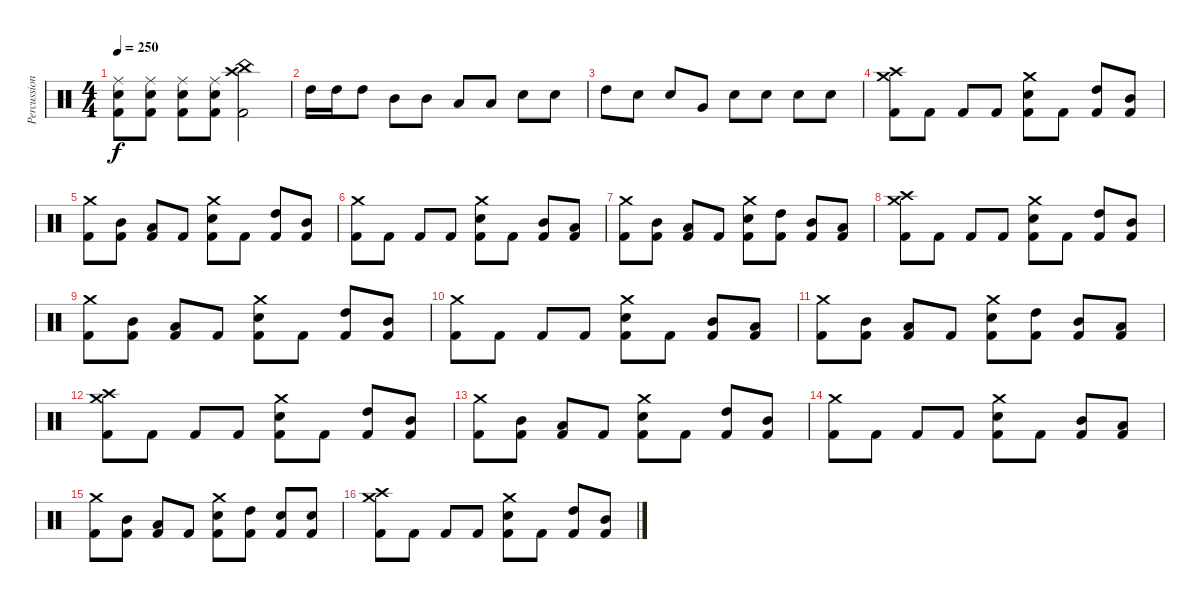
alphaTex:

\track ("Percussion" "Percussion") {instrument percussion}
\staff {score}
\articulation defaults
\ts (4 4)
\tempo 250
\clef neutral
\ks c
("Ride (middle)" "Electric Snare (hit)" "Kick (hit) 2").8{dy f} ("Ride (middle)" "Electric Snare (hit)" "Kick (hit) 2").8 ("Ride (middle)" "Electric Snare (hit)" "Kick (hit) 2").8 ("Ride (middle)" "Electric Snare (hit)" "Kick (hit) 2").8 ("Crash high (hit)" "China (hit)" "Kick (hit) 2").2 |
"High Tom (hit)".16 "High Tom (hit)".16 "High Tom (hit)".8 "Mid Tom (hit)".8 "Mid Tom (hit)".8 "Low Tom (hit)".8 "Low Tom (hit)".8 "Electric Snare (hit)".8 "Electric Snare (hit)".8 |
"High Tom (hit)".8 "Electric Snare (hit)".8 "Electric Snare (hit)".8 "Very Low Tom (hit)".8 "Electric Snare (hit)".8 "Electric Snare (hit)".8 "Electric Snare (hit)".8 "Electric Snare (hit)".8 |
("Crash high (hit)" "Crash medium (hit)" "Kick (hit) 2").8 "Kick (hit) 2".8 "Kick (hit) 2".8 "Kick (hit) 2".8 ("Crash medium (hit)" "Electric Snare (hit)" "Kick (hit) 2").8 "Kick (hit) 2".8 ("High Tom (hit)" "Kick (hit) 2").8 ("Mid Tom (hit)" "Kick (hit) 2").8 |
("Crash medium (hit)" "Kick (hit) 2").8 ("Mid Tom (hit)" "Kick (hit) 2").8 ("Low Tom (hit)" "Kick (hit) 2").8 "Kick (hit) 2".8 ("Crash medium (hit)" "Electric Snare (hit)" "Kick (hit) 2").8 "Kick (hit) 2".8 ("High Tom (hit)" "Kick (hit) 2").8 ("Mid Tom (hit)" "Kick (hit) 2").8 |
("Crash medium (hit)" "Kick (hit) 2").8 "Kick (hit) 2".8 "Kick (hit) 2".8 "Kick (hit) 2".8 ("Crash medium (hit)" "Electric Snare (hit)" "Kick (hit) 2").8 "Kick (hit) 2".8 ("Mid Tom (hit)" "Kick (hit) 2").8 ("Low Tom (hit)" "Kick (hit) 2").8 |
("Crash medium (hit)" "Kick (hit) 2").8 ("Mid Tom (hit)" "Kick (hit) 2").8 ("Low Tom (hit)" "Kick (hit) 2").8 "Kick (hit) 2".8 ("Crash medium (hit)" "Electric Snare (hit)" "Kick (hit) 2").8 ("High Tom (hit)" "Kick (hit) 2").8 ("Mid Tom (hit)" "Kick (hit) 2").8 ("Low Tom (hit)" "Kick (hit) 2").8 |
("Crash high (hit)" "Crash medium (hit)" "Kick (hit) 2").8 "Kick (hit) 2".8 "Kick (hit) 2".8 "Kick (hit) 2".8 ("Crash medium (hit)" "Electric Snare (hit)" "Kick (hit) 2").8 "Kick (hit) 2".8 ("High Tom (hit)" "Kick (hit) 2").8 ("Mid Tom (hit)" "Kick (hit) 2").8 |
("Crash medium (hit)" "Kick (hit) 2").8 ("Mid Tom (hit)" "Kick (hit) 2").8 ("Low Tom (hit)" "Kick (hit) 2").8 "Kick (hit) 2".8 ("Crash medium (hit)" "Electric Snare (hit)" "Kick (hit) 2").8 "Kick (hit) 2".8 ("High Tom (hit)" "Kick (hit) 2").8 ("Mid Tom (hit)" "Kick (hit) 2").8 |
("Crash medium (hit)" "Kick (hit) 2").8 "Kick (hit) 2".8 "Kick (hit) 2".8 "Kick (hit) 2".8 ("Crash medium (hit)" "Electric Snare (hit)" "Kick (hit) 2").8 "Kick (hit) 2".8 ("Mid Tom (hit)" "Kick (hit) 2").8 ("Low Tom (hit)" "Kick (hit) 2").8 |
("Crash medium (hit)" "Kick (hit) 2").8 ("Mid Tom (hit)" "Kick (hit) 2").8 ("Low Tom (hit)" "Kick (hit) 2").8 "Kick (hit) 2".8 ("Crash medium (hit)" "Electric Snare (hit)" "Kick (hit) 2").8 ("High Tom (hit)" "Kick (hit) 2").8 ("Mid Tom (hit)" "Kick (hit) 2").8 ("Low Tom (hit)" "Kick (hit) 2").8 |
("Crash high (hit)" "Crash medium (hit)" "Kick (hit) 2").8 "Kick (hit) 2".8 "Kick (hit) 2".8 "Kick (hit) 2".8 ("Crash medium (hit)" "Electric Snare (hit)" "Kick (hit) 2").8 "Kick (hit) 2".8 ("High Tom (hit)" "Kick (hit) 2").8 ("Mid Tom (hit)" "Kick (hit) 2").8 |
("Crash medium (hit)" "Kick (hit) 2").8 ("Mid Tom (hit)" "Kick (hit) 2").8 ("Low Tom (hit)" "Kick (hit) 2").8 "Kick (hit) 2".8 ("Crash medium (hit)" "Electric Snare (hit)" "Kick (hit) 2").8 "Kick (hit) 2".8 ("High Tom (hit)" "Kick (hit) 2").8 ("Mid Tom (hit)" "Kick (hit) 2").8 |
("Crash medium (hit)" "Kick (hit) 2").8 "Kick (hit) 2".8 "Kick (hit) 2".8 "Kick (hit) 2".8 ("Crash medium (hit)" "Electric Snare (hit)" "Kick (hit) 2").8 "Kick (hit) 2".8 ("Mid Tom (hit)" "Kick (hit) 2").8 ("Low Tom (hit)" "Kick (hit) 2").8 |
("Crash medium (hit)" "Kick (hit) 2").8 ("Mid Tom (hit)" "Kick (hit) 2").8 ("Low Tom (hit)" "Kick (hit) 2").8 "Kick (hit) 2".8 ("Crash medium (hit)" "Electric Snare (hit)" "Kick (hit) 2").8 ("High Tom (hit)" "Kick (hit) 2").8 ("Electric Snare (hit)" "Kick (hit) 2").8 ("Electric Snare (hit)" "Kick (hit) 2").8 |
("Crash high (hit)" "Crash medium (hit)" "Kick (hit) 2").8 "Kick (hit) 2".8 "Kick (hit) 2".8 "Kick (hit) 2".8 ("Crash medium (hit)" "Electric Snare (hit)" "Kick (hit) 2").8 "Kick (hit) 2".8 ("High Tom (hit)" "Kick (hit) 2").8 ("Mid Tom (hit)" "Kick (hit) 2").8
